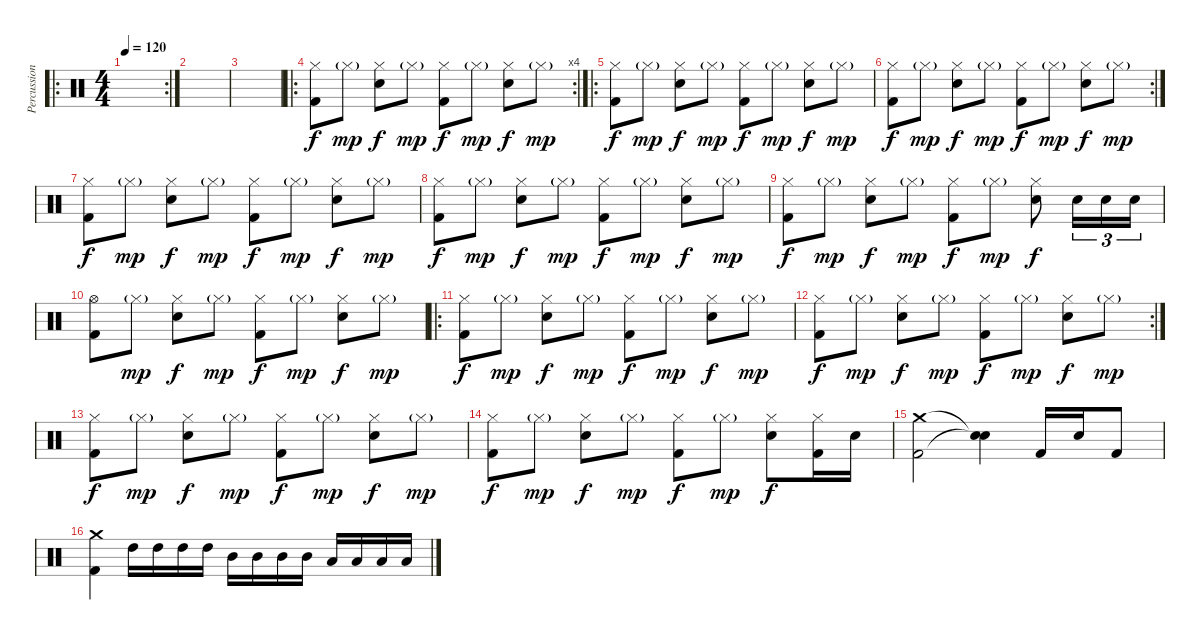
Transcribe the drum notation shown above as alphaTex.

\track ("Percussion" "Percussion") {instrument percussion}
\staff {score}
\articulation defaults
\ro
\rc 2
\ts (4 4)
\tempo 120
\clef neutral
\ks c
|
|
|
\ro
\rc 4
("Hi-Hat (closed)" "Kick (hit) 2").8 "Hi-Hat (closed)"{g}.8{dy mp} ("Hi-Hat (closed)" "Electric Snare (hit)").8{dy f} "Hi-Hat (closed)"{g}.8{dy mp} ("Hi-Hat (closed)" "Kick (hit) 2").8{dy f} "Hi-Hat (closed)"{g}.8{dy mp} ("Hi-Hat (closed)" "Electric Snare (hit)").8{dy f} "Hi-Hat (closed)"{g}.8{dy mp} |
\ro
("Hi-Hat (closed)" "Kick (hit) 2").8{dy f} "Hi-Hat (closed)"{g}.8{dy mp} ("Hi-Hat (closed)" "Electric Snare (hit)").8{dy f} "Hi-Hat (closed)"{g}.8{dy mp} ("Hi-Hat (closed)" "Kick (hit) 2").8{dy f} "Hi-Hat (closed)"{g}.8{dy mp} ("Hi-Hat (closed)" "Electric Snare (hit)").8{dy f} "Hi-Hat (closed)"{g}.8{dy mp} |
\rc 2
("Hi-Hat (closed)" "Kick (hit) 2").8{dy f} "Hi-Hat (closed)"{g}.8{dy mp} ("Hi-Hat (closed)" "Electric Snare (hit)").8{dy f} "Hi-Hat (closed)"{g}.8{dy mp} ("Hi-Hat (closed)" "Kick (hit) 2").8{dy f} "Hi-Hat (closed)"{g}.8{dy mp} ("Hi-Hat (closed)" "Electric Snare (hit)").8{dy f} "Hi-Hat (closed)"{g}.8{dy mp} |
("Hi-Hat (closed)" "Kick (hit) 2").8{dy f} "Hi-Hat (closed)"{g}.8{dy mp} ("Hi-Hat (closed)" "Electric Snare (hit)").8{dy f} "Hi-Hat (closed)"{g}.8{dy mp} ("Hi-Hat (closed)" "Kick (hit) 2").8{dy f} "Hi-Hat (closed)"{g}.8{dy mp} ("Hi-Hat (closed)" "Electric Snare (hit)").8{dy f} "Hi-Hat (closed)"{g}.8{dy mp} |
("Hi-Hat (closed)" "Kick (hit) 2").8{dy f} "Hi-Hat (closed)"{g}.8{dy mp} ("Hi-Hat (closed)" "Electric Snare (hit)").8{dy f} "Hi-Hat (closed)"{g}.8{dy mp} ("Hi-Hat (closed)" "Kick (hit) 2").8{dy f} "Hi-Hat (closed)"{g}.8{dy mp} ("Hi-Hat (closed)" "Electric Snare (hit)").8{dy f} "Hi-Hat (closed)"{g}.8{dy mp} |
("Hi-Hat (closed)" "Kick (hit) 2").8{dy f} "Hi-Hat (closed)"{g}.8{dy mp} ("Hi-Hat (closed)" "Electric Snare (hit)").8{dy f} "Hi-Hat (closed)"{g}.8{dy mp} ("Hi-Hat (closed)" "Kick (hit) 2").8{dy f} "Hi-Hat (closed)"{g}.8{dy mp} ("Hi-Hat (closed)" "Electric Snare (hit)").8{dy f} "Electric Snare (hit)".16{tu (3 2)} "Electric Snare (hit)".16{tu (3 2)} "Electric Snare (hit)".16{tu (3 2)} |
("Hi-Hat (open)" "Kick (hit) 2").8 "Hi-Hat (closed)"{g}.8{dy mp} ("Hi-Hat (closed)" "Electric Snare (hit)").8{dy f} "Hi-Hat (closed)"{g}.8{dy mp} ("Hi-Hat (closed)" "Kick (hit) 2").8{dy f} "Hi-Hat (closed)"{g}.8{dy mp} ("Hi-Hat (closed)" "Electric Snare (hit)").8{dy f} "Hi-Hat (closed)"{g}.8{dy mp} |
\ro
("Hi-Hat (closed)" "Kick (hit) 2").8{dy f} "Hi-Hat (closed)"{g}.8{dy mp} ("Hi-Hat (closed)" "Electric Snare (hit)").8{dy f} "Hi-Hat (closed)"{g}.8{dy mp} ("Hi-Hat (closed)" "Kick (hit) 2").8{dy f} "Hi-Hat (closed)"{g}.8{dy mp} ("Hi-Hat (closed)" "Electric Snare (hit)").8{dy f} "Hi-Hat (closed)"{g}.8{dy mp} |
\rc 2
("Hi-Hat (closed)" "Kick (hit) 2").8{dy f} "Hi-Hat (closed)"{g}.8{dy mp} ("Hi-Hat (closed)" "Electric Snare (hit)").8{dy f} "Hi-Hat (closed)"{g}.8{dy mp} ("Hi-Hat (closed)" "Kick (hit) 2").8{dy f} "Hi-Hat (closed)"{g}.8{dy mp} ("Hi-Hat (closed)" "Electric Snare (hit)").8{dy f} "Hi-Hat (closed)"{g}.8{dy mp} |
("Hi-Hat (closed)" "Kick (hit) 2").8{dy f} "Hi-Hat (closed)"{g}.8{dy mp} ("Hi-Hat (closed)" "Electric Snare (hit)").8{dy f} "Hi-Hat (closed)"{g}.8{dy mp} ("Hi-Hat (closed)" "Kick (hit) 2").8{dy f} "Hi-Hat (closed)"{g}.8{dy mp} ("Hi-Hat (closed)" "Electric Snare (hit)").8{dy f} "Hi-Hat (closed)"{g}.8{dy mp} |
("Hi-Hat (closed)" "Kick (hit) 2").8{dy f} "Hi-Hat (closed)"{g}.8{dy mp} ("Hi-Hat (closed)" "Electric Snare (hit)").8{dy f} "Hi-Hat (closed)"{g}.8{dy mp} ("Hi-Hat (closed)" "Kick (hit) 2").8{dy f} "Hi-Hat (closed)"{g}.8{dy mp} ("Hi-Hat (closed)" "Electric Snare (hit)").8{dy f} ("Hi-Hat (closed)" "Kick (hit) 2").16 "Electric Snare (hit)".16 |
("Crash medium (hit)" "Kick (hit) 2").2 ("Snare (hit)"{t} "Snare (hit)"{t}).4 "Kick (hit) 2".16 "Electric Snare (hit)".16 "Kick (hit) 2".8 |
("Crash medium (hit)" "Kick (hit) 2").4 "High Tom (hit)".16 "High Tom (hit)".16 "High Tom (hit)".16 "High Tom (hit)".16 "Mid Tom (hit)".16 "Mid Tom (hit)".16 "Mid Tom (hit)".16 "Mid Tom (hit)".16 "Low Tom (hit)".16 "Low Tom (hit)".16 "Low Tom (hit)".16 "Low Tom (hit)".16
